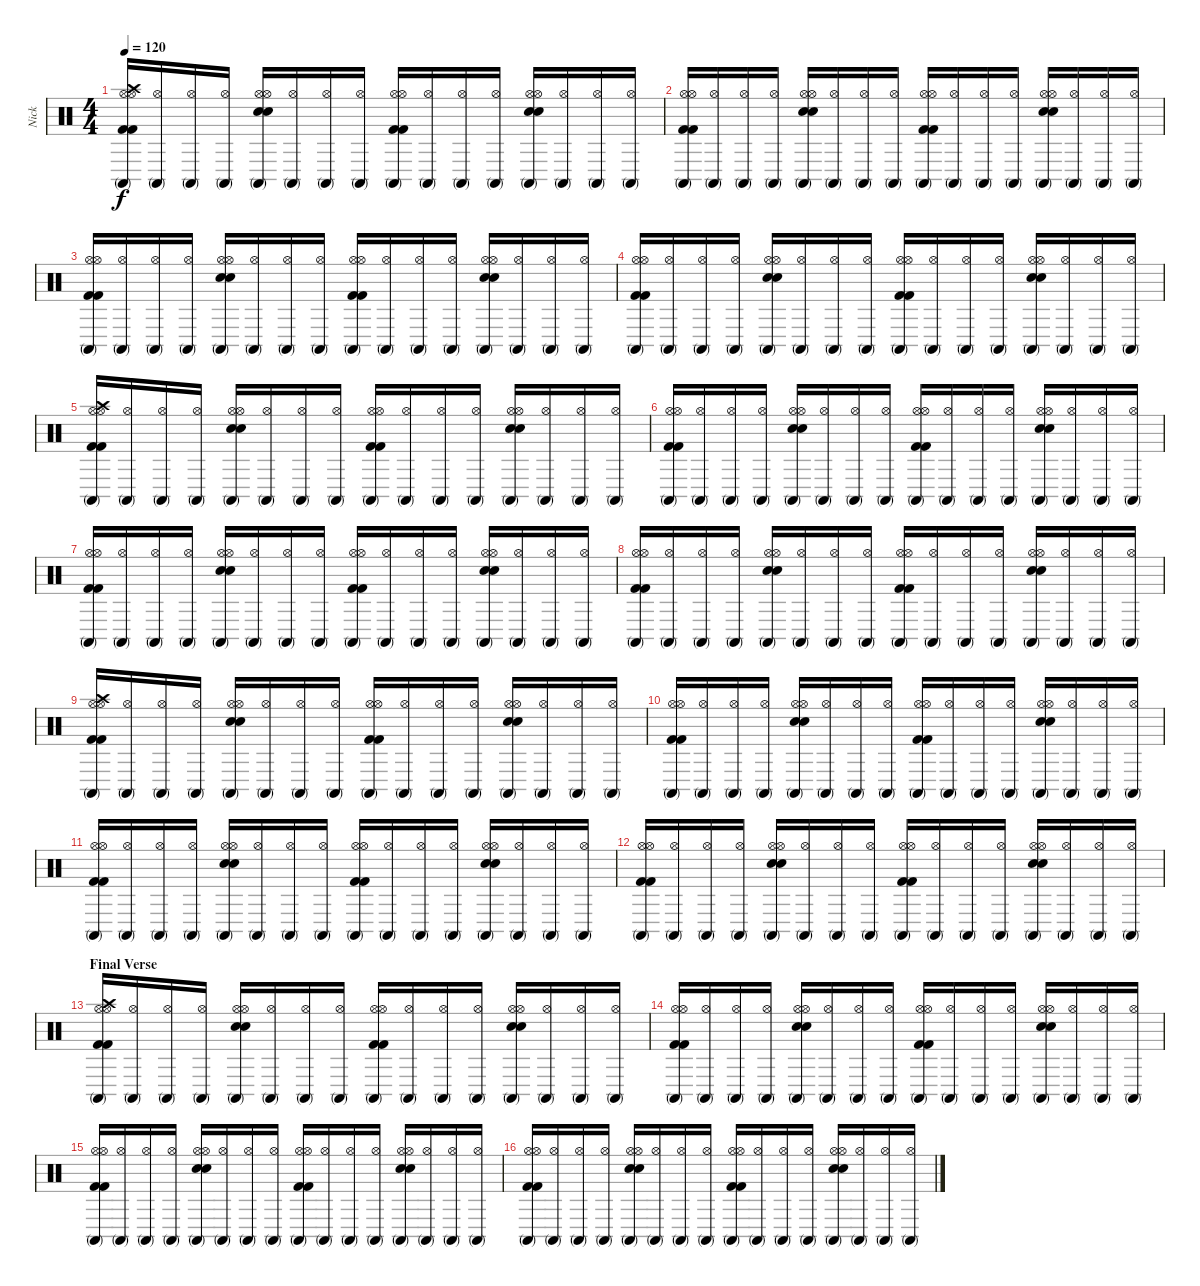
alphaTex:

\track ("Nick" "Nick") {instrument percussion}
\staff {score}
\articulation defaults
\ts (4 4)
\tempo 120
\clef neutral
\ks c
("Hi-Hat (open)" "Hi-Hat (open)" "Crash high (hit)" "Kick (hit) 2" "Kick (hit) 2" "Conga high (mute)").16{dy f} ("Hi-Hat (open)" "Conga high (mute)").16 ("Hi-Hat (open)" "Conga high (mute)").16 ("Hi-Hat (open)" "Conga high (mute)").16 ("Hi-Hat (open)" "Hi-Hat (open)" "Snare (hit) 2" "Snare (hit) 2" "Conga high (mute)").16 ("Hi-Hat (open)" "Conga high (mute)").16 ("Hi-Hat (open)" "Conga high (mute)").16 ("Hi-Hat (open)" "Conga high (mute)").16 ("Hi-Hat (open)" "Hi-Hat (open)" "Kick (hit) 2" "Kick (hit) 2" "Conga high (mute)").16 ("Hi-Hat (open)" "Conga high (mute)").16 ("Hi-Hat (open)" "Conga high (mute)").16 ("Hi-Hat (open)" "Conga high (mute)").16 ("Hi-Hat (open)" "Hi-Hat (open)" "Snare (hit) 2" "Snare (hit) 2" "Conga high (mute)").16 ("Hi-Hat (open)" "Conga high (mute)").16 ("Hi-Hat (open)" "Conga high (mute)").16 ("Hi-Hat (open)" "Conga high (mute)").16 |
("Hi-Hat (open)" "Hi-Hat (open)" "Kick (hit) 2" "Kick (hit) 2" "Conga high (mute)").16 ("Hi-Hat (open)" "Conga high (mute)").16 ("Hi-Hat (open)" "Conga high (mute)").16 ("Hi-Hat (open)" "Conga high (mute)").16 ("Hi-Hat (open)" "Hi-Hat (open)" "Snare (hit) 2" "Snare (hit) 2" "Conga high (mute)").16 ("Hi-Hat (open)" "Conga high (mute)").16 ("Hi-Hat (open)" "Conga high (mute)").16 ("Hi-Hat (open)" "Conga high (mute)").16 ("Hi-Hat (open)" "Hi-Hat (open)" "Kick (hit) 2" "Kick (hit) 2" "Conga high (mute)").16 ("Hi-Hat (open)" "Conga high (mute)").16 ("Hi-Hat (open)" "Conga high (mute)").16 ("Hi-Hat (open)" "Conga high (mute)").16 ("Hi-Hat (open)" "Hi-Hat (open)" "Snare (hit) 2" "Snare (hit) 2" "Conga high (mute)").16 ("Hi-Hat (open)" "Conga high (mute)").16 ("Hi-Hat (open)" "Conga high (mute)").16 ("Hi-Hat (open)" "Conga high (mute)").16 |
("Hi-Hat (open)" "Hi-Hat (open)" "Kick (hit) 2" "Kick (hit) 2" "Conga high (mute)").16 ("Hi-Hat (open)" "Conga high (mute)").16 ("Hi-Hat (open)" "Conga high (mute)").16 ("Hi-Hat (open)" "Conga high (mute)").16 ("Hi-Hat (open)" "Hi-Hat (open)" "Snare (hit) 2" "Snare (hit) 2" "Conga high (mute)").16 ("Hi-Hat (open)" "Conga high (mute)").16 ("Hi-Hat (open)" "Conga high (mute)").16 ("Hi-Hat (open)" "Conga high (mute)").16 ("Hi-Hat (open)" "Hi-Hat (open)" "Kick (hit) 2" "Kick (hit) 2" "Conga high (mute)").16 ("Hi-Hat (open)" "Conga high (mute)").16 ("Hi-Hat (open)" "Conga high (mute)").16 ("Hi-Hat (open)" "Conga high (mute)").16 ("Hi-Hat (open)" "Hi-Hat (open)" "Snare (hit) 2" "Snare (hit) 2" "Conga high (mute)").16 ("Hi-Hat (open)" "Conga high (mute)").16 ("Hi-Hat (open)" "Conga high (mute)").16 ("Hi-Hat (open)" "Conga high (mute)").16 |
("Hi-Hat (open)" "Hi-Hat (open)" "Kick (hit) 2" "Kick (hit) 2" "Conga high (mute)").16 ("Hi-Hat (open)" "Conga high (mute)").16 ("Hi-Hat (open)" "Conga high (mute)").16 ("Hi-Hat (open)" "Conga high (mute)").16 ("Hi-Hat (open)" "Hi-Hat (open)" "Snare (hit) 2" "Snare (hit) 2" "Conga high (mute)").16 ("Hi-Hat (open)" "Conga high (mute)").16 ("Hi-Hat (open)" "Conga high (mute)").16 ("Hi-Hat (open)" "Conga high (mute)").16 ("Hi-Hat (open)" "Hi-Hat (open)" "Kick (hit) 2" "Kick (hit) 2" "Conga high (mute)").16 ("Hi-Hat (open)" "Conga high (mute)").16 ("Hi-Hat (open)" "Conga high (mute)").16 ("Hi-Hat (open)" "Conga high (mute)").16 ("Hi-Hat (open)" "Hi-Hat (open)" "Snare (hit) 2" "Snare (hit) 2" "Conga high (mute)").16 ("Hi-Hat (open)" "Conga high (mute)").16 ("Hi-Hat (open)" "Conga high (mute)").16 ("Hi-Hat (open)" "Conga high (mute)").16 |
("Hi-Hat (open)" "Hi-Hat (open)" "Crash high (hit)" "Kick (hit) 2" "Kick (hit) 2" "Conga high (mute)").16 ("Hi-Hat (open)" "Conga high (mute)").16 ("Hi-Hat (open)" "Conga high (mute)").16 ("Hi-Hat (open)" "Conga high (mute)").16 ("Hi-Hat (open)" "Hi-Hat (open)" "Snare (hit) 2" "Snare (hit) 2" "Conga high (mute)").16 ("Hi-Hat (open)" "Conga high (mute)").16 ("Hi-Hat (open)" "Conga high (mute)").16 ("Hi-Hat (open)" "Conga high (mute)").16 ("Hi-Hat (open)" "Hi-Hat (open)" "Kick (hit) 2" "Kick (hit) 2" "Conga high (mute)").16 ("Hi-Hat (open)" "Conga high (mute)").16 ("Hi-Hat (open)" "Conga high (mute)").16 ("Hi-Hat (open)" "Conga high (mute)").16 ("Hi-Hat (open)" "Hi-Hat (open)" "Snare (hit) 2" "Snare (hit) 2" "Conga high (mute)").16 ("Hi-Hat (open)" "Conga high (mute)").16 ("Hi-Hat (open)" "Conga high (mute)").16 ("Hi-Hat (open)" "Conga high (mute)").16 |
("Hi-Hat (open)" "Hi-Hat (open)" "Kick (hit) 2" "Kick (hit) 2" "Conga high (mute)").16 ("Hi-Hat (open)" "Conga high (mute)").16 ("Hi-Hat (open)" "Conga high (mute)").16 ("Hi-Hat (open)" "Conga high (mute)").16 ("Hi-Hat (open)" "Hi-Hat (open)" "Snare (hit) 2" "Snare (hit) 2" "Conga high (mute)").16 ("Hi-Hat (open)" "Conga high (mute)").16 ("Hi-Hat (open)" "Conga high (mute)").16 ("Hi-Hat (open)" "Conga high (mute)").16 ("Hi-Hat (open)" "Hi-Hat (open)" "Kick (hit) 2" "Kick (hit) 2" "Conga high (mute)").16 ("Hi-Hat (open)" "Conga high (mute)").16 ("Hi-Hat (open)" "Conga high (mute)").16 ("Hi-Hat (open)" "Conga high (mute)").16 ("Hi-Hat (open)" "Hi-Hat (open)" "Snare (hit) 2" "Snare (hit) 2" "Conga high (mute)").16 ("Hi-Hat (open)" "Conga high (mute)").16 ("Hi-Hat (open)" "Conga high (mute)").16 ("Hi-Hat (open)" "Conga high (mute)").16 |
("Hi-Hat (open)" "Hi-Hat (open)" "Kick (hit) 2" "Kick (hit) 2" "Conga high (mute)").16 ("Hi-Hat (open)" "Conga high (mute)").16 ("Hi-Hat (open)" "Conga high (mute)").16 ("Hi-Hat (open)" "Conga high (mute)").16 ("Hi-Hat (open)" "Hi-Hat (open)" "Snare (hit) 2" "Snare (hit) 2" "Conga high (mute)").16 ("Hi-Hat (open)" "Conga high (mute)").16 ("Hi-Hat (open)" "Conga high (mute)").16 ("Hi-Hat (open)" "Conga high (mute)").16 ("Hi-Hat (open)" "Hi-Hat (open)" "Kick (hit) 2" "Kick (hit) 2" "Conga high (mute)").16 ("Hi-Hat (open)" "Conga high (mute)").16 ("Hi-Hat (open)" "Conga high (mute)").16 ("Hi-Hat (open)" "Conga high (mute)").16 ("Hi-Hat (open)" "Hi-Hat (open)" "Snare (hit) 2" "Snare (hit) 2" "Conga high (mute)").16 ("Hi-Hat (open)" "Conga high (mute)").16 ("Hi-Hat (open)" "Conga high (mute)").16 ("Hi-Hat (open)" "Conga high (mute)").16 |
("Hi-Hat (open)" "Hi-Hat (open)" "Kick (hit) 2" "Kick (hit) 2" "Conga high (mute)").16 ("Hi-Hat (open)" "Conga high (mute)").16 ("Hi-Hat (open)" "Conga high (mute)").16 ("Hi-Hat (open)" "Conga high (mute)").16 ("Hi-Hat (open)" "Hi-Hat (open)" "Snare (hit) 2" "Snare (hit) 2" "Conga high (mute)").16 ("Hi-Hat (open)" "Conga high (mute)").16 ("Hi-Hat (open)" "Conga high (mute)").16 ("Hi-Hat (open)" "Conga high (mute)").16 ("Hi-Hat (open)" "Hi-Hat (open)" "Kick (hit) 2" "Kick (hit) 2" "Conga high (mute)").16 ("Hi-Hat (open)" "Conga high (mute)").16 ("Hi-Hat (open)" "Conga high (mute)").16 ("Hi-Hat (open)" "Conga high (mute)").16 ("Hi-Hat (open)" "Hi-Hat (open)" "Snare (hit) 2" "Snare (hit) 2" "Conga high (mute)").16 ("Hi-Hat (open)" "Conga high (mute)").16 ("Hi-Hat (open)" "Conga high (mute)").16 ("Hi-Hat (open)" "Conga high (mute)").16 |
("Hi-Hat (open)" "Hi-Hat (open)" "Crash high (hit)" "Kick (hit) 2" "Kick (hit) 2" "Conga high (mute)").16 ("Hi-Hat (open)" "Conga high (mute)").16 ("Hi-Hat (open)" "Conga high (mute)").16 ("Hi-Hat (open)" "Conga high (mute)").16 ("Hi-Hat (open)" "Hi-Hat (open)" "Snare (hit) 2" "Snare (hit) 2" "Conga high (mute)").16 ("Hi-Hat (open)" "Conga high (mute)").16 ("Hi-Hat (open)" "Conga high (mute)").16 ("Hi-Hat (open)" "Conga high (mute)").16 ("Hi-Hat (open)" "Hi-Hat (open)" "Kick (hit) 2" "Kick (hit) 2" "Conga high (mute)").16 ("Hi-Hat (open)" "Conga high (mute)").16 ("Hi-Hat (open)" "Conga high (mute)").16 ("Hi-Hat (open)" "Conga high (mute)").16 ("Hi-Hat (open)" "Hi-Hat (open)" "Snare (hit) 2" "Snare (hit) 2" "Conga high (mute)").16 ("Hi-Hat (open)" "Conga high (mute)").16 ("Hi-Hat (open)" "Conga high (mute)").16 ("Hi-Hat (open)" "Conga high (mute)").16 |
("Hi-Hat (open)" "Hi-Hat (open)" "Kick (hit) 2" "Kick (hit) 2" "Conga high (mute)").16 ("Hi-Hat (open)" "Conga high (mute)").16 ("Hi-Hat (open)" "Conga high (mute)").16 ("Hi-Hat (open)" "Conga high (mute)").16 ("Hi-Hat (open)" "Hi-Hat (open)" "Snare (hit) 2" "Snare (hit) 2" "Conga high (mute)").16 ("Hi-Hat (open)" "Conga high (mute)").16 ("Hi-Hat (open)" "Conga high (mute)").16 ("Hi-Hat (open)" "Conga high (mute)").16 ("Hi-Hat (open)" "Hi-Hat (open)" "Kick (hit) 2" "Kick (hit) 2" "Conga high (mute)").16 ("Hi-Hat (open)" "Conga high (mute)").16 ("Hi-Hat (open)" "Conga high (mute)").16 ("Hi-Hat (open)" "Conga high (mute)").16 ("Hi-Hat (open)" "Hi-Hat (open)" "Snare (hit) 2" "Snare (hit) 2" "Conga high (mute)").16 ("Hi-Hat (open)" "Conga high (mute)").16 ("Hi-Hat (open)" "Conga high (mute)").16 ("Hi-Hat (open)" "Conga high (mute)").16 |
("Hi-Hat (open)" "Hi-Hat (open)" "Kick (hit) 2" "Kick (hit) 2" "Conga high (mute)").16 ("Hi-Hat (open)" "Conga high (mute)").16 ("Hi-Hat (open)" "Conga high (mute)").16 ("Hi-Hat (open)" "Conga high (mute)").16 ("Hi-Hat (open)" "Hi-Hat (open)" "Snare (hit) 2" "Snare (hit) 2" "Conga high (mute)").16 ("Hi-Hat (open)" "Conga high (mute)").16 ("Hi-Hat (open)" "Conga high (mute)").16 ("Hi-Hat (open)" "Conga high (mute)").16 ("Hi-Hat (open)" "Hi-Hat (open)" "Kick (hit) 2" "Kick (hit) 2" "Conga high (mute)").16 ("Hi-Hat (open)" "Conga high (mute)").16 ("Hi-Hat (open)" "Conga high (mute)").16 ("Hi-Hat (open)" "Conga high (mute)").16 ("Hi-Hat (open)" "Hi-Hat (open)" "Snare (hit) 2" "Snare (hit) 2" "Conga high (mute)").16 ("Hi-Hat (open)" "Conga high (mute)").16 ("Hi-Hat (open)" "Conga high (mute)").16 ("Hi-Hat (open)" "Conga high (mute)").16 |
("Hi-Hat (open)" "Hi-Hat (open)" "Kick (hit) 2" "Kick (hit) 2" "Conga high (mute)").16 ("Hi-Hat (open)" "Conga high (mute)").16 ("Hi-Hat (open)" "Conga high (mute)").16 ("Hi-Hat (open)" "Conga high (mute)").16 ("Hi-Hat (open)" "Hi-Hat (open)" "Snare (hit) 2" "Snare (hit) 2" "Conga high (mute)").16 ("Hi-Hat (open)" "Conga high (mute)").16 ("Hi-Hat (open)" "Conga high (mute)").16 ("Hi-Hat (open)" "Conga high (mute)").16 ("Hi-Hat (open)" "Hi-Hat (open)" "Kick (hit) 2" "Kick (hit) 2" "Conga high (mute)").16 ("Hi-Hat (open)" "Conga high (mute)").16 ("Hi-Hat (open)" "Conga high (mute)").16 ("Hi-Hat (open)" "Conga high (mute)").16 ("Hi-Hat (open)" "Hi-Hat (open)" "Snare (hit) 2" "Snare (hit) 2" "Conga high (mute)").16 ("Hi-Hat (open)" "Conga high (mute)").16 ("Hi-Hat (open)" "Conga high (mute)").16 ("Hi-Hat (open)" "Conga high (mute)").16 |
\section ("" "Final Verse")
("Hi-Hat (open)" "Hi-Hat (open)" "Crash high (hit)" "Kick (hit) 2" "Kick (hit) 2" "Conga high (mute)").16 ("Hi-Hat (open)" "Conga high (mute)").16 ("Hi-Hat (open)" "Conga high (mute)").16 ("Hi-Hat (open)" "Conga high (mute)").16 ("Hi-Hat (open)" "Hi-Hat (open)" "Snare (hit) 2" "Snare (hit) 2" "Conga high (mute)").16 ("Hi-Hat (open)" "Conga high (mute)").16 ("Hi-Hat (open)" "Conga high (mute)").16 ("Hi-Hat (open)" "Conga high (mute)").16 ("Hi-Hat (open)" "Hi-Hat (open)" "Kick (hit) 2" "Kick (hit) 2" "Conga high (mute)").16 ("Hi-Hat (open)" "Conga high (mute)").16 ("Hi-Hat (open)" "Conga high (mute)").16 ("Hi-Hat (open)" "Conga high (mute)").16 ("Hi-Hat (open)" "Hi-Hat (open)" "Snare (hit) 2" "Snare (hit) 2" "Conga high (mute)").16 ("Hi-Hat (open)" "Conga high (mute)").16 ("Hi-Hat (open)" "Conga high (mute)").16 ("Hi-Hat (open)" "Conga high (mute)").16 |
("Hi-Hat (open)" "Hi-Hat (open)" "Kick (hit) 2" "Kick (hit) 2" "Conga high (mute)").16 ("Hi-Hat (open)" "Conga high (mute)").16 ("Hi-Hat (open)" "Conga high (mute)").16 ("Hi-Hat (open)" "Conga high (mute)").16 ("Hi-Hat (open)" "Hi-Hat (open)" "Snare (hit) 2" "Snare (hit) 2" "Conga high (mute)").16 ("Hi-Hat (open)" "Conga high (mute)").16 ("Hi-Hat (open)" "Conga high (mute)").16 ("Hi-Hat (open)" "Conga high (mute)").16 ("Hi-Hat (open)" "Hi-Hat (open)" "Kick (hit) 2" "Kick (hit) 2" "Conga high (mute)").16 ("Hi-Hat (open)" "Conga high (mute)").16 ("Hi-Hat (open)" "Conga high (mute)").16 ("Hi-Hat (open)" "Conga high (mute)").16 ("Hi-Hat (open)" "Hi-Hat (open)" "Snare (hit) 2" "Snare (hit) 2" "Conga high (mute)").16 ("Hi-Hat (open)" "Conga high (mute)").16 ("Hi-Hat (open)" "Conga high (mute)").16 ("Hi-Hat (open)" "Conga high (mute)").16 |
("Hi-Hat (open)" "Hi-Hat (open)" "Kick (hit) 2" "Kick (hit) 2" "Conga high (mute)").16 ("Hi-Hat (open)" "Conga high (mute)").16 ("Hi-Hat (open)" "Conga high (mute)").16 ("Hi-Hat (open)" "Conga high (mute)").16 ("Hi-Hat (open)" "Hi-Hat (open)" "Snare (hit) 2" "Snare (hit) 2" "Conga high (mute)").16 ("Hi-Hat (open)" "Conga high (mute)").16 ("Hi-Hat (open)" "Conga high (mute)").16 ("Hi-Hat (open)" "Conga high (mute)").16 ("Hi-Hat (open)" "Hi-Hat (open)" "Kick (hit) 2" "Kick (hit) 2" "Conga high (mute)").16 ("Hi-Hat (open)" "Conga high (mute)").16 ("Hi-Hat (open)" "Conga high (mute)").16 ("Hi-Hat (open)" "Conga high (mute)").16 ("Hi-Hat (open)" "Hi-Hat (open)" "Snare (hit) 2" "Snare (hit) 2" "Conga high (mute)").16 ("Hi-Hat (open)" "Conga high (mute)").16 ("Hi-Hat (open)" "Conga high (mute)").16 ("Hi-Hat (open)" "Conga high (mute)").16 |
("Hi-Hat (open)" "Hi-Hat (open)" "Kick (hit) 2" "Kick (hit) 2" "Conga high (mute)").16 ("Hi-Hat (open)" "Conga high (mute)").16 ("Hi-Hat (open)" "Conga high (mute)").16 ("Hi-Hat (open)" "Conga high (mute)").16 ("Hi-Hat (open)" "Hi-Hat (open)" "Snare (hit) 2" "Snare (hit) 2" "Conga high (mute)").16 ("Hi-Hat (open)" "Conga high (mute)").16 ("Hi-Hat (open)" "Conga high (mute)").16 ("Hi-Hat (open)" "Conga high (mute)").16 ("Hi-Hat (open)" "Hi-Hat (open)" "Kick (hit) 2" "Kick (hit) 2" "Conga high (mute)").16 ("Hi-Hat (open)" "Conga high (mute)").16 ("Hi-Hat (open)" "Conga high (mute)").16 ("Hi-Hat (open)" "Conga high (mute)").16 ("Hi-Hat (open)" "Hi-Hat (open)" "Snare (hit) 2" "Snare (hit) 2" "Conga high (mute)").16 ("Hi-Hat (open)" "Conga high (mute)").16 ("Hi-Hat (open)" "Conga high (mute)").16 ("Hi-Hat (open)" "Conga high (mute)").16
